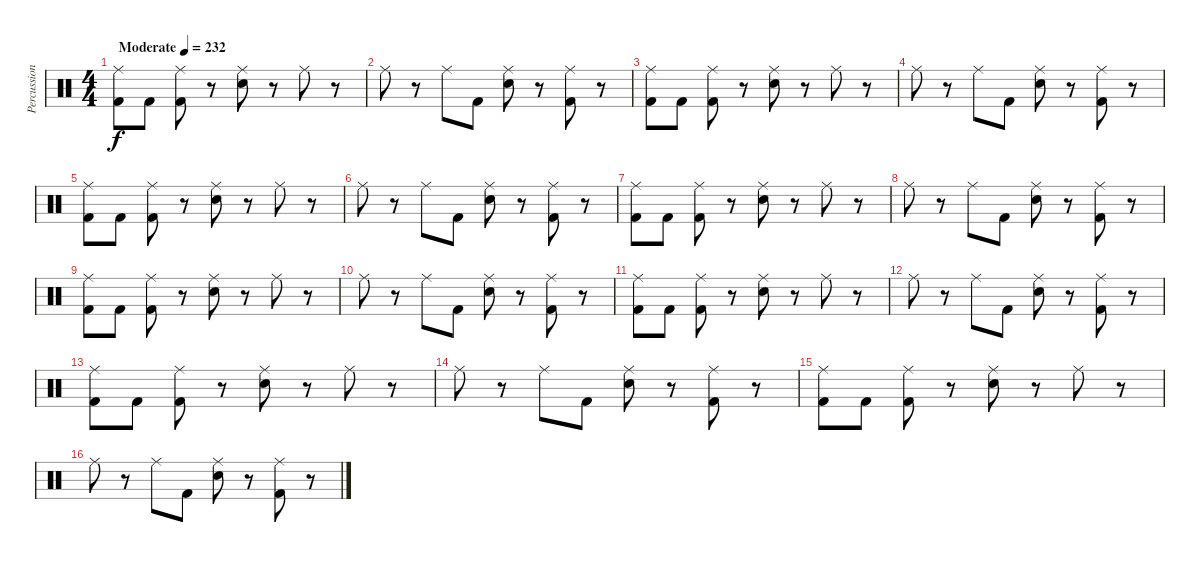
\track ("Percussion" "Percussion") {instrument percussion}
\staff {score}
\articulation defaults
\ts (4 4)
\tempo (232 "Moderate")
\clef neutral
\ks c
("Ride (middle)" "Kick (hit) 2").8{dy f} "Kick (hit) 2".8 ("Ride (middle)" "Kick (hit) 2").8 r.8 ("Ride (middle)" "Snare (hit) 2").8 r.8 "Ride (middle)".8 r.8 |
"Ride (middle)".8 r.8 "Ride (middle)".8 "Kick (hit) 2".8 ("Ride (middle)" "Snare (hit) 2").8 r.8 ("Ride (middle)" "Kick (hit) 2").8 r.8 |
("Ride (middle)" "Kick (hit) 2").8 "Kick (hit) 2".8 ("Ride (middle)" "Kick (hit) 2").8 r.8 ("Ride (middle)" "Snare (hit) 2").8 r.8 "Ride (middle)".8 r.8 |
"Ride (middle)".8 r.8 "Ride (middle)".8 "Kick (hit) 2".8 ("Ride (middle)" "Snare (hit) 2").8 r.8 ("Ride (middle)" "Kick (hit) 2").8 r.8 |
("Ride (middle)" "Kick (hit) 2").8 "Kick (hit) 2".8 ("Ride (middle)" "Kick (hit) 2").8 r.8 ("Ride (middle)" "Snare (hit) 2").8 r.8 "Ride (middle)".8 r.8 |
"Ride (middle)".8 r.8 "Ride (middle)".8 "Kick (hit) 2".8 ("Ride (middle)" "Snare (hit) 2").8 r.8 ("Ride (middle)" "Kick (hit) 2").8 r.8 |
("Ride (middle)" "Kick (hit) 2").8 "Kick (hit) 2".8 ("Ride (middle)" "Kick (hit) 2").8 r.8 ("Ride (middle)" "Snare (hit) 2").8 r.8 "Ride (middle)".8 r.8 |
"Ride (middle)".8 r.8 "Ride (middle)".8 "Kick (hit) 2".8 ("Ride (middle)" "Snare (hit) 2").8 r.8 ("Ride (middle)" "Kick (hit) 2").8 r.8 |
("Ride (middle)" "Kick (hit) 2").8 "Kick (hit) 2".8 ("Ride (middle)" "Kick (hit) 2").8 r.8 ("Ride (middle)" "Snare (hit) 2").8 r.8 "Ride (middle)".8 r.8 |
"Ride (middle)".8 r.8 "Ride (middle)".8 "Kick (hit) 2".8 ("Ride (middle)" "Snare (hit) 2").8 r.8 ("Ride (middle)" "Kick (hit) 2").8 r.8 |
("Ride (middle)" "Kick (hit) 2").8 "Kick (hit) 2".8 ("Ride (middle)" "Kick (hit) 2").8 r.8 ("Ride (middle)" "Snare (hit) 2").8 r.8 "Ride (middle)".8 r.8 |
"Ride (middle)".8 r.8 "Ride (middle)".8 "Kick (hit) 2".8 ("Ride (middle)" "Snare (hit) 2").8 r.8 ("Ride (middle)" "Kick (hit) 2").8 r.8 |
("Ride (middle)" "Kick (hit) 2").8 "Kick (hit) 2".8 ("Ride (middle)" "Kick (hit) 2").8 r.8 ("Ride (middle)" "Snare (hit) 2").8 r.8 "Ride (middle)".8 r.8 |
"Ride (middle)".8 r.8 "Ride (middle)".8 "Kick (hit) 2".8 ("Ride (middle)" "Snare (hit) 2").8 r.8 ("Ride (middle)" "Kick (hit) 2").8 r.8 |
("Ride (middle)" "Kick (hit) 2").8 "Kick (hit) 2".8 ("Ride (middle)" "Kick (hit) 2").8 r.8 ("Ride (middle)" "Snare (hit) 2").8 r.8 "Ride (middle)".8 r.8 |
"Ride (middle)".8 r.8 "Ride (middle)".8 "Kick (hit) 2".8 ("Ride (middle)" "Snare (hit) 2").8 r.8 ("Ride (middle)" "Kick (hit) 2").8 r.8
